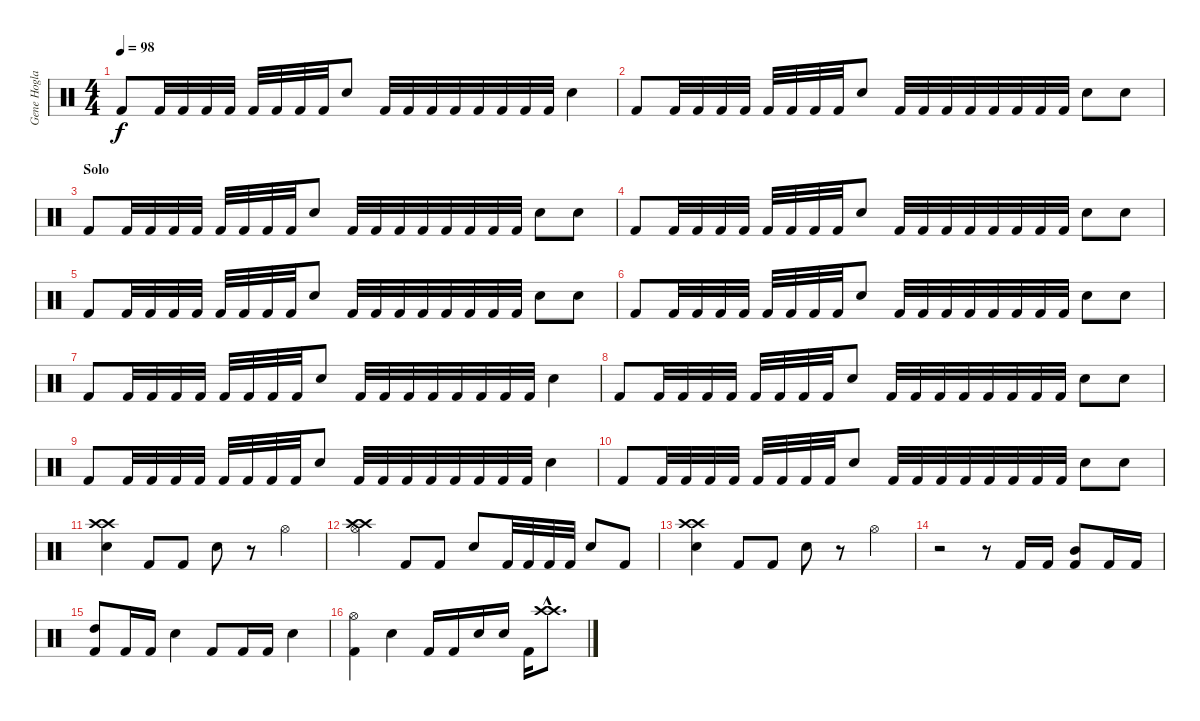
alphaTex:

\track ("Gene Hoglan" "Gene Hogla") {instrument percussion}
\staff {score}
\articulation defaults
\ts (4 4)
\tempo 98
\clef neutral
\ks c "Kick (hit) 2".8{dy f} "Kick (hit) 2".32 "Kick (hit) 2".32 "Kick (hit) 2".32 "Kick (hit) 2".32 "Kick (hit) 2".32 "Kick (hit) 2".32 "Kick (hit) 2".32 "Kick (hit) 2".32 "Electric Snare (hit)".8 "Kick (hit) 2".32 "Kick (hit) 2".32 "Kick (hit) 2".32 "Kick (hit) 2".32 "Kick (hit) 2".32 "Kick (hit) 2".32 "Kick (hit) 2".32 "Kick (hit) 2".32 "Electric Snare (hit)".4
|
"Kick (hit) 2".8 "Kick (hit) 2".32 "Kick (hit) 2".32 "Kick (hit) 2".32 "Kick (hit) 2".32 "Kick (hit) 2".32 "Kick (hit) 2".32 "Kick (hit) 2".32 "Kick (hit) 2".32 "Electric Snare (hit)".8 "Kick (hit) 2".32 "Kick (hit) 2".32 "Kick (hit) 2".32 "Kick (hit) 2".32 "Kick (hit) 2".32 "Kick (hit) 2".32 "Kick (hit) 2".32 "Kick (hit) 2".32 "Electric Snare (hit)".8 "Snare (hit) 2".8 |
\section ("" "Solo")
"Kick (hit) 2".8 "Kick (hit) 2".32 "Kick (hit) 2".32 "Kick (hit) 2".32 "Kick (hit) 2".32 "Kick (hit) 2".32 "Kick (hit) 2".32 "Kick (hit) 2".32 "Kick (hit) 2".32 "Electric Snare (hit)".8 "Kick (hit) 2".32 "Kick (hit) 2".32 "Kick (hit) 2".32 "Kick (hit) 2".32 "Kick (hit) 2".32 "Kick (hit) 2".32 "Kick (hit) 2".32 "Kick (hit) 2".32 "Electric Snare (hit)".8 "Snare (hit) 2".8 |
"Kick (hit) 2".8 "Kick (hit) 2".32 "Kick (hit) 2".32 "Kick (hit) 2".32 "Kick (hit) 2".32 "Kick (hit) 2".32 "Kick (hit) 2".32 "Kick (hit) 2".32 "Kick (hit) 2".32 "Electric Snare (hit)".8 "Kick (hit) 2".32 "Kick (hit) 2".32 "Kick (hit) 2".32 "Kick (hit) 2".32 "Kick (hit) 2".32 "Kick (hit) 2".32 "Kick (hit) 2".32 "Kick (hit) 2".32 "Electric Snare (hit)".8 "Snare (hit) 2".8 |
"Kick (hit) 2".8 "Kick (hit) 2".32 "Kick (hit) 2".32 "Kick (hit) 2".32 "Kick (hit) 2".32 "Kick (hit) 2".32 "Kick (hit) 2".32 "Kick (hit) 2".32 "Kick (hit) 2".32 "Electric Snare (hit)".8 "Kick (hit) 2".32 "Kick (hit) 2".32 "Kick (hit) 2".32 "Kick (hit) 2".32 "Kick (hit) 2".32 "Kick (hit) 2".32 "Kick (hit) 2".32 "Kick (hit) 2".32 "Electric Snare (hit)".8 "Snare (hit) 2".8 |
"Kick (hit) 2".8 "Kick (hit) 2".32 "Kick (hit) 2".32 "Kick (hit) 2".32 "Kick (hit) 2".32 "Kick (hit) 2".32 "Kick (hit) 2".32 "Kick (hit) 2".32 "Kick (hit) 2".32 "Electric Snare (hit)".8 "Kick (hit) 2".32 "Kick (hit) 2".32 "Kick (hit) 2".32 "Kick (hit) 2".32 "Kick (hit) 2".32 "Kick (hit) 2".32 "Kick (hit) 2".32 "Kick (hit) 2".32 "Electric Snare (hit)".8 "Snare (hit) 2".8 |
"Kick (hit) 2".8 "Kick (hit) 2".32 "Kick (hit) 2".32 "Kick (hit) 2".32 "Kick (hit) 2".32 "Kick (hit) 2".32 "Kick (hit) 2".32 "Kick (hit) 2".32 "Kick (hit) 2".32 "Electric Snare (hit)".8 "Kick (hit) 2".32 "Kick (hit) 2".32 "Kick (hit) 2".32 "Kick (hit) 2".32 "Kick (hit) 2".32 "Kick (hit) 2".32 "Kick (hit) 2".32 "Kick (hit) 2".32 "Electric Snare (hit)".4 |
"Kick (hit) 2".8 "Kick (hit) 2".32 "Kick (hit) 2".32 "Kick (hit) 2".32 "Kick (hit) 2".32 "Kick (hit) 2".32 "Kick (hit) 2".32 "Kick (hit) 2".32 "Kick (hit) 2".32 "Electric Snare (hit)".8 "Kick (hit) 2".32 "Kick (hit) 2".32 "Kick (hit) 2".32 "Kick (hit) 2".32 "Kick (hit) 2".32 "Kick (hit) 2".32 "Kick (hit) 2".32 "Kick (hit) 2".32 "Electric Snare (hit)".8 "Snare (hit) 2".8 |
"Kick (hit) 2".8 "Kick (hit) 2".32 "Kick (hit) 2".32 "Kick (hit) 2".32 "Kick (hit) 2".32 "Kick (hit) 2".32 "Kick (hit) 2".32 "Kick (hit) 2".32 "Kick (hit) 2".32 "Electric Snare (hit)".8 "Kick (hit) 2".32 "Kick (hit) 2".32 "Kick (hit) 2".32 "Kick (hit) 2".32 "Kick (hit) 2".32 "Kick (hit) 2".32 "Kick (hit) 2".32 "Kick (hit) 2".32 "Electric Snare (hit)".4 |
"Kick (hit) 2".8 "Kick (hit) 2".32 "Kick (hit) 2".32 "Kick (hit) 2".32 "Kick (hit) 2".32 "Kick (hit) 2".32 "Kick (hit) 2".32 "Kick (hit) 2".32 "Kick (hit) 2".32 "Electric Snare (hit)".8 "Kick (hit) 2".32 "Kick (hit) 2".32 "Kick (hit) 2".32 "Kick (hit) 2".32 "Kick (hit) 2".32 "Kick (hit) 2".32 "Kick (hit) 2".32 "Kick (hit) 2".32 "Electric Snare (hit)".8 "Snare (hit) 2".8 |
("Crash high (hit)" "Crash high (hit)" "Electric Snare (hit)").4 "Kick (hit) 2".8 "Kick (hit) 2".8 "Electric Snare (hit)".8 r.8 "Hi-Hat (open)".4 |
("Crash high (hit)" "Crash high (hit)" "Hi-Hat (open)").4 "Kick (hit) 2".8 "Kick (hit) 2".8 "Electric Snare (hit)".8 "Kick (hit) 2".32 "Kick (hit) 2".32 "Kick (hit) 2".32 "Kick (hit) 2".32 "Electric Snare (hit)".8 "Kick (hit) 2".8 |
("Crash high (hit)" "Crash high (hit)" "Electric Snare (hit)").4 "Kick (hit) 2".8 "Kick (hit) 2".8 "Electric Snare (hit)".8 r.8 "Hi-Hat (open)".4 |
r.2 r.8 "Kick (hit) 2".16 "Kick (hit) 2".16 ("Mid Tom (hit)" "Kick (hit) 2").8 "Kick (hit) 2".16 "Kick (hit) 2".16 |
("High Tom (hit)" "Kick (hit) 2").8 "Kick (hit) 2".16 "Kick (hit) 2".16 "Electric Snare (hit)".4 "Kick (hit) 2".8 "Kick (hit) 2".16 "Kick (hit) 2".16 "Electric Snare (hit)".4 |
("Hi-Hat (open)" "Kick (hit) 2").4 "Electric Snare (hit)".4 "Kick (hit) 2".16 "Kick (hit) 2".16 "Electric Snare (hit)".16 "Electric Snare (hit)".16 "Kick (hit) 2".16 ("Crash high (hit)"{hac} "Crash high (hit)"{hac}).8{d}
